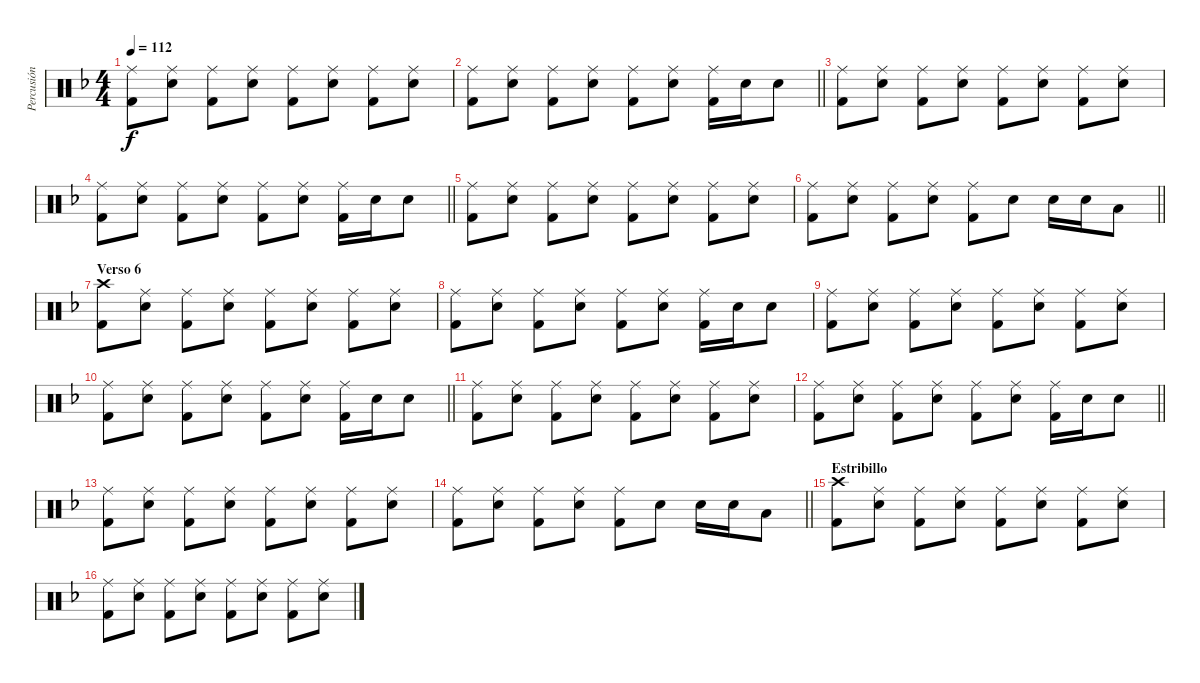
\track ("Percusión" "Percusión") {instrument percussion}
\staff {score}
\articulation defaults
\ts (4 4)
\tempo 112
\clef neutral
\ks dminor
("Ride (middle)" "Kick (hit) 2").8{dy f} ("Ride (middle)" "Snare (hit) 2").8 ("Ride (middle)" "Kick (hit) 2").8 ("Ride (middle)" "Snare (hit) 2").8 ("Ride (middle)" "Kick (hit) 2").8 ("Ride (middle)" "Snare (hit) 2").8 ("Ride (middle)" "Kick (hit) 2").8 ("Ride (middle)" "Snare (hit) 2").8 |
\barLineRight lightlight
("Ride (middle)" "Kick (hit) 2").8 ("Ride (middle)" "Snare (hit) 2").8 ("Ride (middle)" "Kick (hit) 2").8 ("Ride (middle)" "Snare (hit) 2").8 ("Ride (middle)" "Kick (hit) 2").8 ("Ride (middle)" "Snare (hit) 2").8 ("Ride (middle)" "Kick (hit) 2").16 "Snare (hit) 2".16 "Snare (hit) 2".8 |
("Ride (middle)" "Kick (hit) 2").8 ("Ride (middle)" "Snare (hit) 2").8 ("Ride (middle)" "Kick (hit) 2").8 ("Ride (middle)" "Snare (hit) 2").8 ("Ride (middle)" "Kick (hit) 2").8 ("Ride (middle)" "Snare (hit) 2").8 ("Ride (middle)" "Kick (hit) 2").8 ("Ride (middle)" "Snare (hit) 2").8 |
\barLineRight lightlight
("Ride (middle)" "Kick (hit) 2").8 ("Ride (middle)" "Snare (hit) 2").8 ("Ride (middle)" "Kick (hit) 2").8 ("Ride (middle)" "Snare (hit) 2").8 ("Ride (middle)" "Kick (hit) 2").8 ("Ride (middle)" "Snare (hit) 2").8 ("Ride (middle)" "Kick (hit) 2").16 "Snare (hit) 2".16 "Snare (hit) 2".8 |
("Ride (middle)" "Kick (hit) 2").8 ("Ride (middle)" "Snare (hit) 2").8 ("Ride (middle)" "Kick (hit) 2").8 ("Ride (middle)" "Snare (hit) 2").8 ("Ride (middle)" "Kick (hit) 2").8 ("Ride (middle)" "Snare (hit) 2").8 ("Ride (middle)" "Kick (hit) 2").8 ("Ride (middle)" "Snare (hit) 2").8 |
\barLineRight lightlight
("Ride (middle)" "Kick (hit) 2").8 ("Ride (middle)" "Snare (hit) 2").8 ("Ride (middle)" "Kick (hit) 2").8 ("Ride (middle)" "Snare (hit) 2").8 ("Ride (middle)" "Kick (hit) 2").8 "Snare (hit) 2".8 "Snare (hit) 2".16 "Snare (hit) 2".16 "Low Tom (hit)".8 |
\section ("" "Verso 6")
("Crash high (hit)" "Kick (hit) 2").8 ("Ride (middle)" "Snare (hit) 2").8 ("Ride (middle)" "Kick (hit) 2").8 ("Ride (middle)" "Snare (hit) 2").8 ("Ride (middle)" "Kick (hit) 2").8 ("Ride (middle)" "Snare (hit) 2").8 ("Ride (middle)" "Kick (hit) 2").8 ("Ride (middle)" "Snare (hit) 2").8 |
("Ride (middle)" "Kick (hit) 2").8 ("Ride (middle)" "Snare (hit) 2").8 ("Ride (middle)" "Kick (hit) 2").8 ("Ride (middle)" "Snare (hit) 2").8 ("Ride (middle)" "Kick (hit) 2").8 ("Ride (middle)" "Snare (hit) 2").8 ("Ride (middle)" "Kick (hit) 2").16 "Snare (hit) 2".16 "Snare (hit) 2".8 |
("Ride (middle)" "Kick (hit) 2").8 ("Ride (middle)" "Snare (hit) 2").8 ("Ride (middle)" "Kick (hit) 2").8 ("Ride (middle)" "Snare (hit) 2").8 ("Ride (middle)" "Kick (hit) 2").8 ("Ride (middle)" "Snare (hit) 2").8 ("Ride (middle)" "Kick (hit) 2").8 ("Ride (middle)" "Snare (hit) 2").8 |
\barLineRight lightlight
("Ride (middle)" "Kick (hit) 2").8 ("Ride (middle)" "Snare (hit) 2").8 ("Ride (middle)" "Kick (hit) 2").8 ("Ride (middle)" "Snare (hit) 2").8 ("Ride (middle)" "Kick (hit) 2").8 ("Ride (middle)" "Snare (hit) 2").8 ("Ride (middle)" "Kick (hit) 2").16 "Snare (hit) 2".16 "Snare (hit) 2".8 |
("Ride (middle)" "Kick (hit) 2").8 ("Ride (middle)" "Snare (hit) 2").8 ("Ride (middle)" "Kick (hit) 2").8 ("Ride (middle)" "Snare (hit) 2").8 ("Ride (middle)" "Kick (hit) 2").8 ("Ride (middle)" "Snare (hit) 2").8 ("Ride (middle)" "Kick (hit) 2").8 ("Ride (middle)" "Snare (hit) 2").8 |
\barLineRight lightlight
("Ride (middle)" "Kick (hit) 2").8 ("Ride (middle)" "Snare (hit) 2").8 ("Ride (middle)" "Kick (hit) 2").8 ("Ride (middle)" "Snare (hit) 2").8 ("Ride (middle)" "Kick (hit) 2").8 ("Ride (middle)" "Snare (hit) 2").8 ("Ride (middle)" "Kick (hit) 2").16 "Snare (hit) 2".16 "Snare (hit) 2".8 |
("Ride (middle)" "Kick (hit) 2").8 ("Ride (middle)" "Snare (hit) 2").8 ("Ride (middle)" "Kick (hit) 2").8 ("Ride (middle)" "Snare (hit) 2").8 ("Ride (middle)" "Kick (hit) 2").8 ("Ride (middle)" "Snare (hit) 2").8 ("Ride (middle)" "Kick (hit) 2").8 ("Ride (middle)" "Snare (hit) 2").8 |
\barLineRight lightlight
("Ride (middle)" "Kick (hit) 2").8 ("Ride (middle)" "Snare (hit) 2").8 ("Ride (middle)" "Kick (hit) 2").8 ("Ride (middle)" "Snare (hit) 2").8 ("Ride (middle)" "Kick (hit) 2").8 "Snare (hit) 2".8 "Snare (hit) 2".16 "Snare (hit) 2".16 "Low Tom (hit)".8 |
\section ("" "Estribillo")
("Crash high (hit)" "Kick (hit) 2").8 ("Ride (middle)" "Snare (hit) 2").8 ("Ride (middle)" "Kick (hit) 2").8 ("Ride (middle)" "Snare (hit) 2").8 ("Ride (middle)" "Kick (hit) 2").8 ("Ride (middle)" "Snare (hit) 2").8 ("Ride (middle)" "Kick (hit) 2").8 ("Ride (middle)" "Snare (hit) 2").8 |
("Ride (middle)" "Kick (hit) 2").8 ("Ride (middle)" "Snare (hit) 2").8 ("Ride (middle)" "Kick (hit) 2").8 ("Ride (middle)" "Snare (hit) 2").8 ("Ride (middle)" "Kick (hit) 2").8 ("Ride (middle)" "Snare (hit) 2").8 ("Ride (middle)" "Kick (hit) 2").8 ("Ride (middle)" "Snare (hit) 2").8
